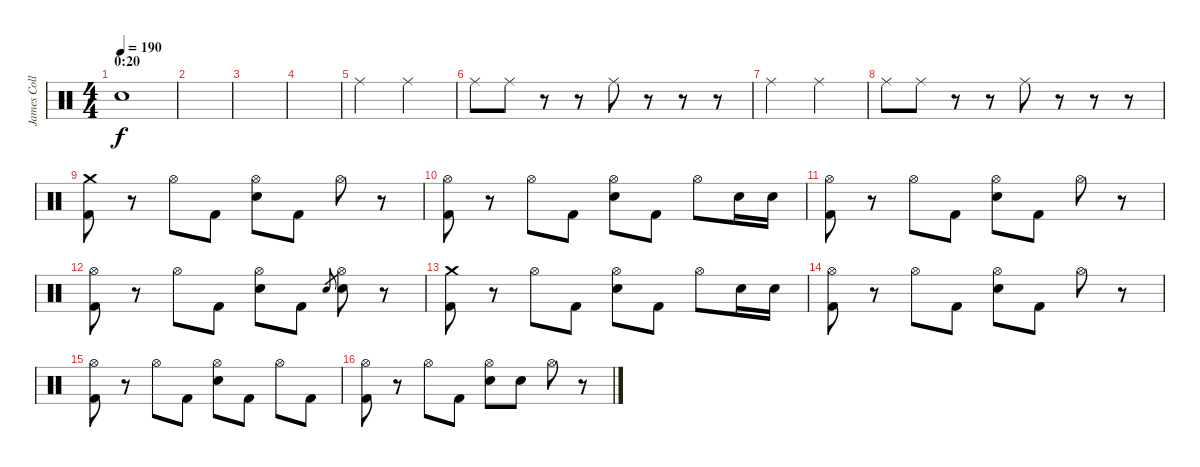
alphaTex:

\track ("James Collins" "James Coll") {instrument percussion}
\staff {score}
\articulation defaults
\ts (4 4)
\section ("" "0:20")
\tempo 190
\clef neutral
\ks c "Electric Snare (hit)".1{dy f}
|
|
|
|
"Ride (middle)".2 "Ride (middle)".2 |
"Ride (middle)".8 "Ride (middle)".8 r.8 r.8 "Ride (middle)".8 r.8 r.8 r.8 |
"Ride (middle)".2 "Ride (middle)".2 |
"Ride (middle)".8 "Ride (middle)".8 r.8 r.8 "Ride (middle)".8 r.8 r.8 r.8 |
("Crash medium (hit)" "Kick (hit) 2").8 r.8 "Hi-Hat (open)".8 "Kick (hit) 2".8 ("Hi-Hat (open)" "Electric Snare (hit)").8 "Kick (hit) 2".8 "Hi-Hat (open)".8 r.8 |
("Hi-Hat (open)" "Kick (hit) 2").8 r.8 "Hi-Hat (open)".8 "Kick (hit) 2".8 ("Hi-Hat (open)" "Electric Snare (hit)").8 "Kick (hit) 2".8 "Hi-Hat (open)".8 "Electric Snare (hit)".16 "Electric Snare (hit)".16 |
("Hi-Hat (open)" "Kick (hit) 2").8 r.8 "Hi-Hat (open)".8 "Kick (hit) 2".8 ("Hi-Hat (open)" "Electric Snare (hit)").8 "Kick (hit) 2".8 "Hi-Hat (open)".8 r.8 |
("Hi-Hat (open)" "Kick (hit) 2").8 r.8 "Hi-Hat (open)".8 "Kick (hit) 2".8 ("Hi-Hat (open)" "Electric Snare (hit)").8 "Kick (hit) 2".8 "Electric Snare (hit)".8{gr} ("Hi-Hat (open)" "Electric Snare (hit)").8 r.8 |
("Crash medium (hit)" "Kick (hit) 2").8 r.8 "Hi-Hat (open)".8 "Kick (hit) 2".8 ("Hi-Hat (open)" "Electric Snare (hit)").8 "Kick (hit) 2".8 "Hi-Hat (open)".8 "Electric Snare (hit)".16 "Electric Snare (hit)".16 |
("Hi-Hat (open)" "Kick (hit) 2").8 r.8 "Hi-Hat (open)".8 "Kick (hit) 2".8 ("Hi-Hat (open)" "Electric Snare (hit)").8 "Kick (hit) 2".8 "Hi-Hat (open)".8 r.8 |
("Hi-Hat (open)" "Kick (hit) 2").8 r.8 "Hi-Hat (open)".8 "Kick (hit) 2".8 ("Hi-Hat (open)" "Electric Snare (hit)").8 "Kick (hit) 2".8 "Hi-Hat (open)".8 "Kick (hit) 2".8 |
("Hi-Hat (open)" "Kick (hit) 2").8 r.8 "Hi-Hat (open)".8 "Kick (hit) 2".8 ("Hi-Hat (open)" "Electric Snare (hit)").8 "Electric Snare (hit)".8 "Hi-Hat (open)".8 r.8
